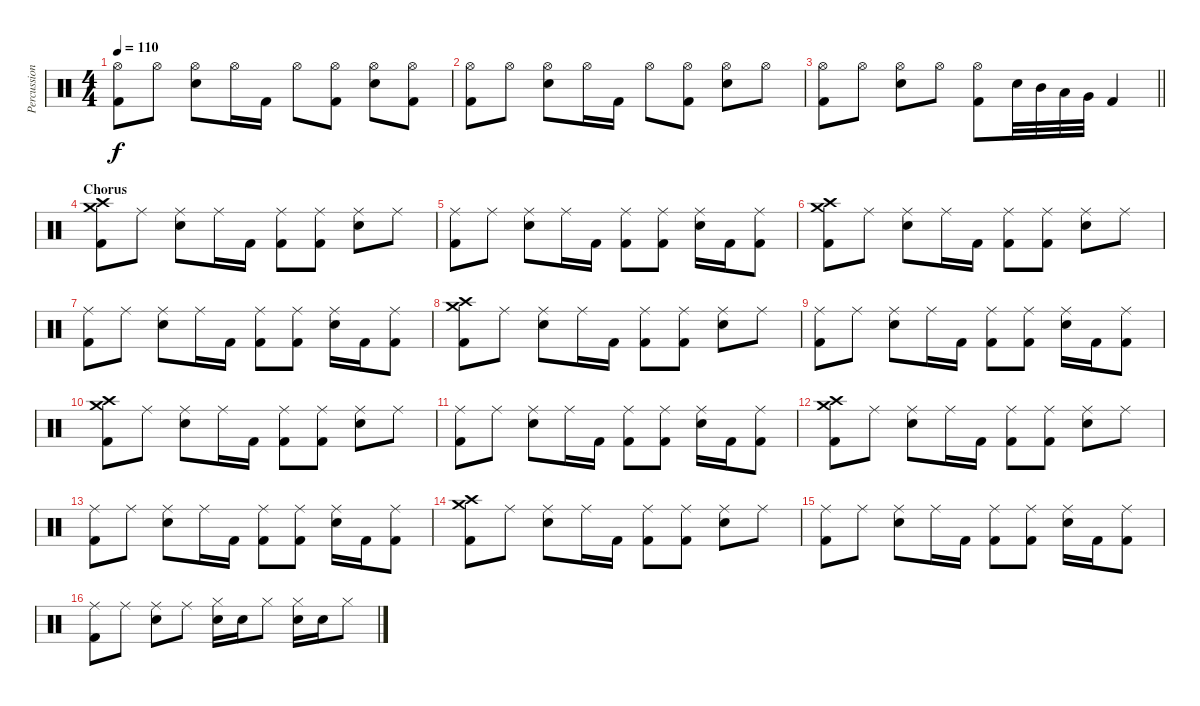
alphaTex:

\track ("Percussion" "Percussion") {instrument percussion}
\staff {score}
\articulation defaults
\ts (4 4)
\tempo 110
\clef neutral
\ks c
("Hi-Hat (open)" "Kick (hit) 2").8{dy f} "Hi-Hat (open)".8 ("Hi-Hat (open)" "Snare (hit) 2").8 "Hi-Hat (open)".16 "Kick (hit) 2".16 "Hi-Hat (open)".8 ("Hi-Hat (open)" "Kick (hit) 2").8 ("Hi-Hat (open)" "Snare (hit) 2").8 ("Hi-Hat (open)" "Kick (hit) 2").8 |
("Hi-Hat (open)" "Kick (hit) 2").8 "Hi-Hat (open)".8 ("Hi-Hat (open)" "Snare (hit) 2").8 "Hi-Hat (open)".16 "Kick (hit) 2".16 "Hi-Hat (open)".8 ("Hi-Hat (open)" "Kick (hit) 2").8 ("Hi-Hat (open)" "Snare (hit) 2").8 "Hi-Hat (open)".8 |
\barLineRight lightlight
("Hi-Hat (open)" "Kick (hit) 2").8 "Hi-Hat (open)".8 ("Hi-Hat (open)" "Snare (hit) 2").8 "Hi-Hat (open)".8 ("Hi-Hat (open)" "Kick (hit) 2").8 "Snare (hit) 2".32 "Mid Tom (hit)".32 "Low Tom (hit)".32 "Very Low Tom (hit)".32 "Kick (hit) 2".4 |
\section ("" "Chorus")
("Crash medium (hit)" "Crash high (hit)" "Kick (hit) 2").8 "Ride (middle)".8 ("Ride (middle)" "Snare (hit) 2").8 "Ride (middle)".16 "Kick (hit) 2".16 ("Ride (middle)" "Kick (hit) 2").8 ("Ride (middle)" "Kick (hit) 2").8 ("Ride (middle)" "Snare (hit) 2").8 "Ride (middle)".8 |
("Ride (middle)" "Kick (hit) 2").8 "Ride (middle)".8 ("Ride (middle)" "Snare (hit) 2").8 "Ride (middle)".16 "Kick (hit) 2".16 ("Ride (middle)" "Kick (hit) 2").8 ("Ride (middle)" "Kick (hit) 2").8 ("Ride (middle)" "Snare (hit) 2").16 "Kick (hit) 2".16 ("Ride (middle)" "Kick (hit) 2").8 |
("Crash medium (hit)" "Crash high (hit)" "Kick (hit) 2").8 "Ride (middle)".8 ("Ride (middle)" "Snare (hit) 2").8 "Ride (middle)".16 "Kick (hit) 2".16 ("Ride (middle)" "Kick (hit) 2").8 ("Ride (middle)" "Kick (hit) 2").8 ("Ride (middle)" "Snare (hit) 2").8 "Ride (middle)".8 |
("Ride (middle)" "Kick (hit) 2").8 "Ride (middle)".8 ("Ride (middle)" "Snare (hit) 2").8 "Ride (middle)".16 "Kick (hit) 2".16 ("Ride (middle)" "Kick (hit) 2").8 ("Ride (middle)" "Kick (hit) 2").8 ("Ride (middle)" "Snare (hit) 2").16 "Kick (hit) 2".16 ("Ride (middle)" "Kick (hit) 2").8 |
("Crash medium (hit)" "Crash high (hit)" "Kick (hit) 2").8 "Ride (middle)".8 ("Ride (middle)" "Snare (hit) 2").8 "Ride (middle)".16 "Kick (hit) 2".16 ("Ride (middle)" "Kick (hit) 2").8 ("Ride (middle)" "Kick (hit) 2").8 ("Ride (middle)" "Snare (hit) 2").8 "Ride (middle)".8 |
("Ride (middle)" "Kick (hit) 2").8 "Ride (middle)".8 ("Ride (middle)" "Snare (hit) 2").8 "Ride (middle)".16 "Kick (hit) 2".16 ("Ride (middle)" "Kick (hit) 2").8 ("Ride (middle)" "Kick (hit) 2").8 ("Ride (middle)" "Snare (hit) 2").16 "Kick (hit) 2".16 ("Ride (middle)" "Kick (hit) 2").8 |
("Crash medium (hit)" "Crash high (hit)" "Kick (hit) 2").8 "Ride (middle)".8 ("Ride (middle)" "Snare (hit) 2").8 "Ride (middle)".16 "Kick (hit) 2".16 ("Ride (middle)" "Kick (hit) 2").8 ("Ride (middle)" "Kick (hit) 2").8 ("Ride (middle)" "Snare (hit) 2").8 "Ride (middle)".8 |
("Ride (middle)" "Kick (hit) 2").8 "Ride (middle)".8 ("Ride (middle)" "Snare (hit) 2").8 "Ride (middle)".16 "Kick (hit) 2".16 ("Ride (middle)" "Kick (hit) 2").8 ("Ride (middle)" "Kick (hit) 2").8 ("Ride (middle)" "Snare (hit) 2").16 "Kick (hit) 2".16 ("Ride (middle)" "Kick (hit) 2").8 |
("Crash medium (hit)" "Crash high (hit)" "Kick (hit) 2").8 "Ride (middle)".8 ("Ride (middle)" "Snare (hit) 2").8 "Ride (middle)".16 "Kick (hit) 2".16 ("Ride (middle)" "Kick (hit) 2").8 ("Ride (middle)" "Kick (hit) 2").8 ("Ride (middle)" "Snare (hit) 2").8 "Ride (middle)".8 |
("Ride (middle)" "Kick (hit) 2").8 "Ride (middle)".8 ("Ride (middle)" "Snare (hit) 2").8 "Ride (middle)".16 "Kick (hit) 2".16 ("Ride (middle)" "Kick (hit) 2").8 ("Ride (middle)" "Kick (hit) 2").8 ("Ride (middle)" "Snare (hit) 2").16 "Kick (hit) 2".16 ("Ride (middle)" "Kick (hit) 2").8 |
("Crash medium (hit)" "Crash high (hit)" "Kick (hit) 2").8 "Ride (middle)".8 ("Ride (middle)" "Snare (hit) 2").8 "Ride (middle)".16 "Kick (hit) 2".16 ("Ride (middle)" "Kick (hit) 2").8 ("Ride (middle)" "Kick (hit) 2").8 ("Ride (middle)" "Snare (hit) 2").8 "Ride (middle)".8 |
("Ride (middle)" "Kick (hit) 2").8 "Ride (middle)".8 ("Ride (middle)" "Snare (hit) 2").8 "Ride (middle)".16 "Kick (hit) 2".16 ("Ride (middle)" "Kick (hit) 2").8 ("Ride (middle)" "Kick (hit) 2").8 ("Ride (middle)" "Snare (hit) 2").16 "Kick (hit) 2".16 ("Ride (middle)" "Kick (hit) 2").8 |
("Ride (middle)" "Kick (hit) 2").8 "Ride (middle)".8 ("Ride (middle)" "Snare (hit) 2").8 "Ride (middle)".8 ("Hi-Hat (closed)" "Snare (hit) 2").16 "Snare (hit) 2".16 "Hi-Hat (closed)".8 ("Hi-Hat (closed)" "Snare (hit) 2").16 "Snare (hit) 2".16 "Hi-Hat (closed)".8
